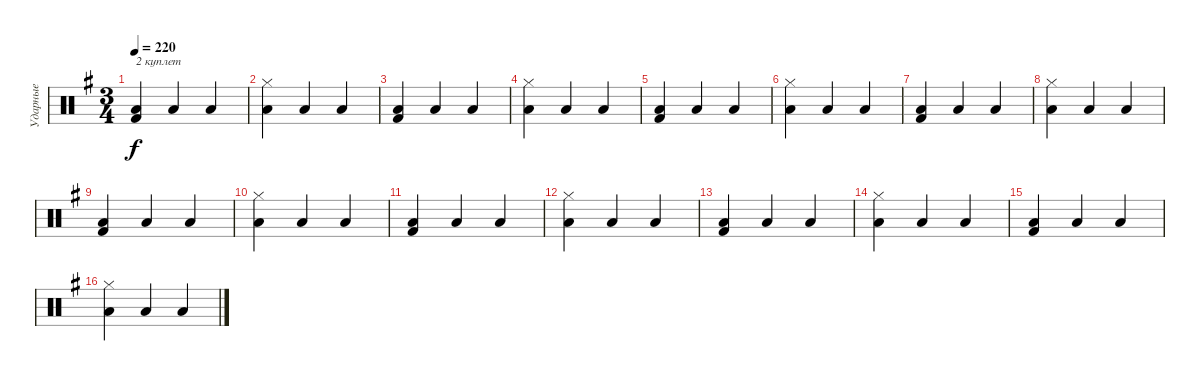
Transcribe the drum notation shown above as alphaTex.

\track ("Ударные" "Ударные") {instrument percussion}
\staff {score}
\articulation defaults
\ts (3 4)
\tempo 220
\clef neutral
\ks eminor
("Kick (hit) 2" "Low Tom (hit)").4{txt "2 куплет" dy f} "Low Tom (hit)".4 "Low Tom (hit)".4 |
("Hi-Hat (closed)" "Low Tom (hit)").4 "Low Tom (hit)".4 "Low Tom (hit)".4 |
("Kick (hit) 2" "Low Tom (hit)").4 "Low Tom (hit)".4 "Low Tom (hit)".4 |
("Hi-Hat (closed)" "Low Tom (hit)").4 "Low Tom (hit)".4 "Low Tom (hit)".4 |
("Kick (hit) 2" "Low Tom (hit)").4 "Low Tom (hit)".4 "Low Tom (hit)".4 |
("Hi-Hat (closed)" "Low Tom (hit)").4 "Low Tom (hit)".4 "Low Tom (hit)".4 |
("Kick (hit) 2" "Low Tom (hit)").4 "Low Tom (hit)".4 "Low Tom (hit)".4 |
("Hi-Hat (closed)" "Low Tom (hit)").4 "Low Tom (hit)".4 "Low Tom (hit)".4 |
("Kick (hit) 2" "Low Tom (hit)").4 "Low Tom (hit)".4 "Low Tom (hit)".4 |
("Hi-Hat (closed)" "Low Tom (hit)").4 "Low Tom (hit)".4 "Low Tom (hit)".4 |
("Kick (hit) 2" "Low Tom (hit)").4 "Low Tom (hit)".4 "Low Tom (hit)".4 |
("Hi-Hat (closed)" "Low Tom (hit)").4 "Low Tom (hit)".4 "Low Tom (hit)".4 |
("Kick (hit) 2" "Low Tom (hit)").4 "Low Tom (hit)".4 "Low Tom (hit)".4 |
("Hi-Hat (closed)" "Low Tom (hit)").4 "Low Tom (hit)".4 "Low Tom (hit)".4 |
("Kick (hit) 2" "Low Tom (hit)").4 "Low Tom (hit)".4 "Low Tom (hit)".4 |
("Hi-Hat (closed)" "Low Tom (hit)").4 "Low Tom (hit)".4 "Low Tom (hit)".4
